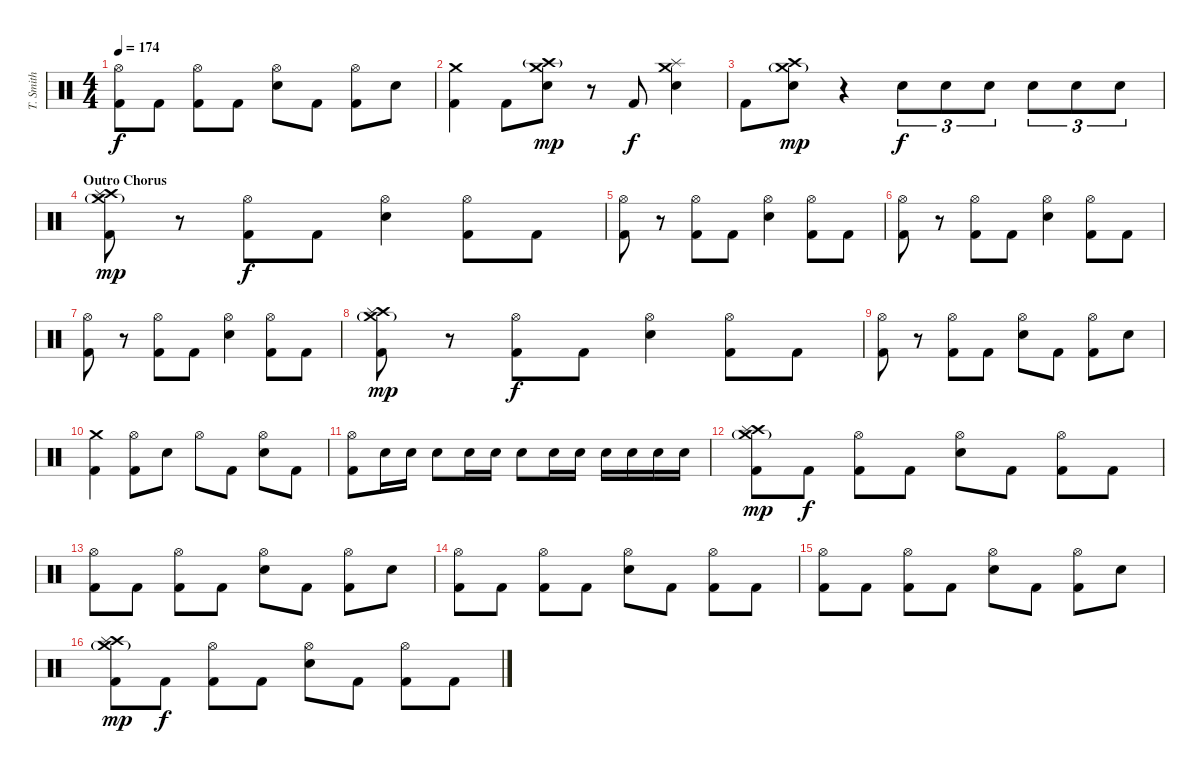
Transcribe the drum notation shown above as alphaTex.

\track ("T. Smith" "T. Smith") {instrument percussion}
\staff {score}
\articulation defaults
\ts (4 4)
\tempo 174
\clef neutral
\ks c
("Hi-Hat (open)" "Kick (hit) 2").8{dy f} "Kick (hit) 2".8 ("Hi-Hat (open)" "Kick (hit) 2").8 "Kick (hit) 2".8 ("Hi-Hat (open)" "Electric Snare (hit)").8 "Kick (hit) 2".8 ("Hi-Hat (open)" "Kick (hit) 2").8 "Electric Snare (hit)".8 |
("Crash medium (hit)" "Kick (hit) 2").4 "Kick (hit) 2".8 ("Crash high (hit)"{g} "Crash medium (hit)" "Electric Snare (hit)").8{dy mp} r.8 "Kick (hit) 2".8{dy f} ("Crash medium (hit)" "Splash (hit)" "Electric Snare (hit)").4 |
"Kick (hit) 2".8 ("Crash high (hit)" "Crash medium (hit)"{g} "Electric Snare (hit)").8{dy mp} r.4 "Electric Snare (hit)".8{tu (3 2) dy f} "Electric Snare (hit)".8{tu (3 2)} "Electric Snare (hit)".8{tu (3 2)} "Electric Snare (hit)".8{tu (3 2)} "Electric Snare (hit)".8{tu (3 2)} "Electric Snare (hit)".8{tu (3 2)} |
\section ("" "Outro Chorus")
("Crash medium (hit)"{g} "Crash high (hit)" "Splash (hit)" "Kick (hit) 2").8{dy mp} r.8 ("Hi-Hat (open)" "Kick (hit) 2").8{dy f} "Kick (hit) 2".8 ("Hi-Hat (open)" "Electric Snare (hit)").4 ("Hi-Hat (open)" "Kick (hit) 2").8 "Kick (hit) 2".8 |
("Hi-Hat (open)" "Kick (hit) 2").8 r.8 ("Hi-Hat (open)" "Kick (hit) 2").8 "Kick (hit) 2".8 ("Hi-Hat (open)" "Electric Snare (hit)").4 ("Hi-Hat (open)" "Kick (hit) 2").8 "Kick (hit) 2".8 |
("Hi-Hat (open)" "Kick (hit) 2").8 r.8 ("Hi-Hat (open)" "Kick (hit) 2").8 "Kick (hit) 2".8 ("Hi-Hat (open)" "Electric Snare (hit)").4 ("Hi-Hat (open)" "Kick (hit) 2").8 "Kick (hit) 2".8 |
("Hi-Hat (open)" "Kick (hit) 2").8 r.8 ("Hi-Hat (open)" "Kick (hit) 2").8 "Kick (hit) 2".8 ("Hi-Hat (open)" "Electric Snare (hit)").4 ("Hi-Hat (open)" "Kick (hit) 2").8 "Kick (hit) 2".8 |
("Crash medium (hit)"{g} "Crash high (hit)" "Splash (hit)" "Kick (hit) 2").8{dy mp} r.8 ("Hi-Hat (open)" "Kick (hit) 2").8{dy f} "Kick (hit) 2".8 ("Hi-Hat (open)" "Electric Snare (hit)").4 ("Hi-Hat (open)" "Kick (hit) 2").8 "Kick (hit) 2".8 |
("Hi-Hat (open)" "Kick (hit) 2").8 r.8 ("Hi-Hat (open)" "Kick (hit) 2").8 "Kick (hit) 2".8 ("Hi-Hat (open)" "Electric Snare (hit)").8 "Kick (hit) 2".8 ("Hi-Hat (open)" "Kick (hit) 2").8 "Electric Snare (hit)".8 |
("Crash medium (hit)" "Kick (hit) 2").4 ("Hi-Hat (open)" "Kick (hit) 2").8 "Electric Snare (hit)".8 "Hi-Hat (open)".8 "Kick (hit) 2".8 ("Hi-Hat (open)" "Electric Snare (hit)").8 "Kick (hit) 2".8 |
("Hi-Hat (open)" "Kick (hit) 2").8 "Electric Snare (hit)".16 "Electric Snare (hit)".16 "Electric Snare (hit)".8 "Electric Snare (hit)".16 "Electric Snare (hit)".16 "Electric Snare (hit)".8 "Electric Snare (hit)".16 "Electric Snare (hit)".16 "Electric Snare (hit)".16 "Electric Snare (hit)".16 "Electric Snare (hit)".16 "Electric Snare (hit)".16 |
("Crash medium (hit)"{g} "Crash high (hit)" "Splash (hit)" "Kick (hit) 2").8{dy mp} "Kick (hit) 2".8{dy f} ("Hi-Hat (open)" "Kick (hit) 2").8 "Kick (hit) 2".8 ("Hi-Hat (open)" "Electric Snare (hit)").8 "Kick (hit) 2".8 ("Hi-Hat (open)" "Kick (hit) 2").8 "Kick (hit) 2".8 |
("Hi-Hat (open)" "Kick (hit) 2").8 "Kick (hit) 2".8 ("Hi-Hat (open)" "Kick (hit) 2").8 "Kick (hit) 2".8 ("Hi-Hat (open)" "Electric Snare (hit)").8 "Kick (hit) 2".8 ("Hi-Hat (open)" "Kick (hit) 2").8 "Electric Snare (hit)".8 |
("Hi-Hat (open)" "Kick (hit) 2").8 "Kick (hit) 2".8 ("Hi-Hat (open)" "Kick (hit) 2").8 "Kick (hit) 2".8 ("Hi-Hat (open)" "Electric Snare (hit)").8 "Kick (hit) 2".8 ("Hi-Hat (open)" "Kick (hit) 2").8 "Kick (hit) 2".8 |
("Hi-Hat (open)" "Kick (hit) 2").8 "Kick (hit) 2".8 ("Hi-Hat (open)" "Kick (hit) 2").8 "Kick (hit) 2".8 ("Hi-Hat (open)" "Electric Snare (hit)").8 "Kick (hit) 2".8 ("Hi-Hat (open)" "Kick (hit) 2").8 "Electric Snare (hit)".8 |
("Crash medium (hit)"{g} "Crash high (hit)" "Splash (hit)" "Kick (hit) 2").8{dy mp} "Kick (hit) 2".8{dy f} ("Hi-Hat (open)" "Kick (hit) 2").8 "Kick (hit) 2".8 ("Hi-Hat (open)" "Electric Snare (hit)").8 "Kick (hit) 2".8 ("Hi-Hat (open)" "Kick (hit) 2").8 "Kick (hit) 2".8
